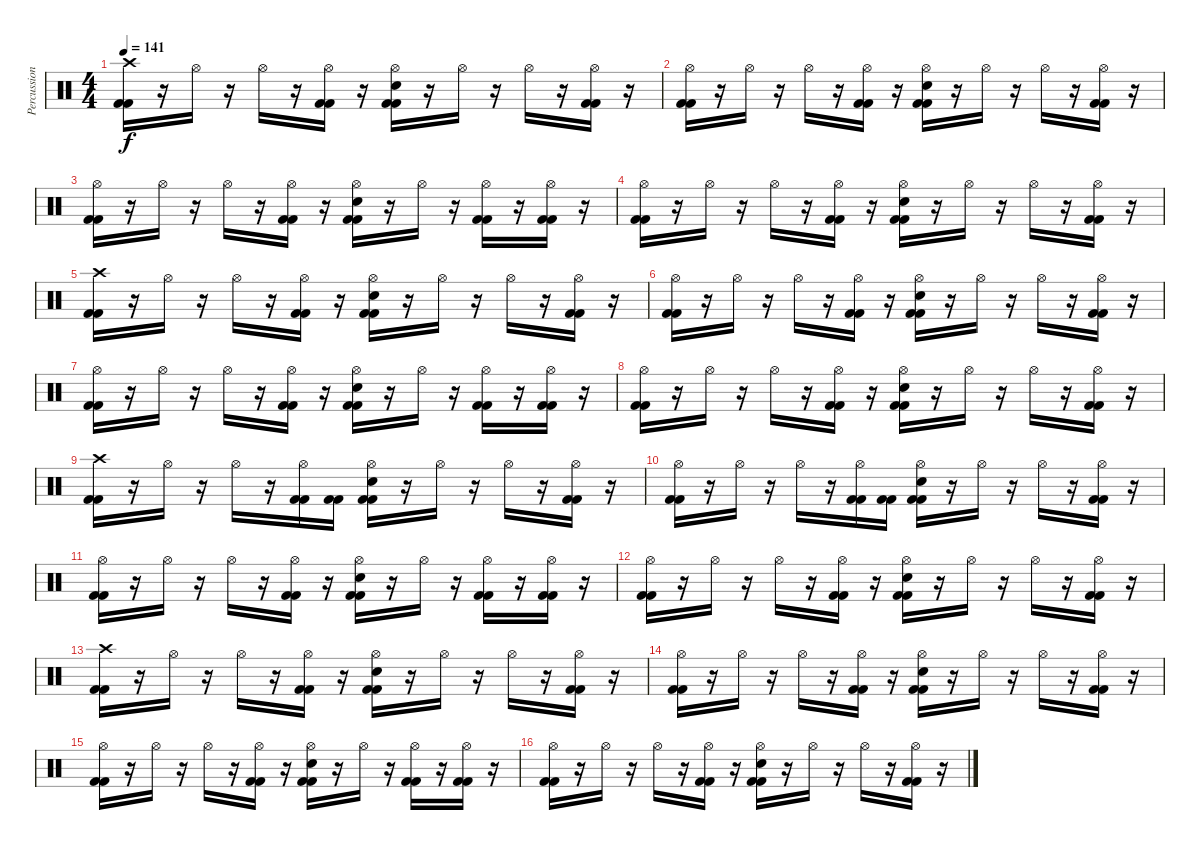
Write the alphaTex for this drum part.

\track ("Percussions" "Percussion") {instrument percussion}
\staff {score}
\articulation defaults
\ts (4 4)
\tempo 141
\clef neutral
\ks c
("Crash high (hit)" "Kick (hit) 2" "Kick (hit) 2").16{dy f} r.16 "Hi-Hat (open)".16 r.16 "Hi-Hat (open)".16 r.16 ("Hi-Hat (open)" "Kick (hit) 2" "Kick (hit) 2").16 r.16 ("Hi-Hat (open)" "Snare (hit) 2" "Kick (hit) 2" "Kick (hit) 2").16 r.16 "Hi-Hat (open)".16 r.16 "Hi-Hat (open)".16 r.16 ("Hi-Hat (open)" "Kick (hit) 2" "Kick (hit) 2").16 r.16 |
("Hi-Hat (open)" "Kick (hit) 2" "Kick (hit) 2").16 r.16 "Hi-Hat (open)".16 r.16 "Hi-Hat (open)".16 r.16 ("Hi-Hat (open)" "Kick (hit) 2" "Kick (hit) 2").16 r.16 ("Hi-Hat (open)" "Snare (hit) 2" "Kick (hit) 2" "Kick (hit) 2").16 r.16 "Hi-Hat (open)".16 r.16 "Hi-Hat (open)".16 r.16 ("Hi-Hat (open)" "Kick (hit) 2" "Kick (hit) 2").16 r.16 |
("Hi-Hat (open)" "Kick (hit) 2" "Kick (hit) 2").16 r.16 "Hi-Hat (open)".16 r.16 "Hi-Hat (open)".16 r.16 ("Hi-Hat (open)" "Kick (hit) 2" "Kick (hit) 2").16 r.16 ("Hi-Hat (open)" "Snare (hit) 2" "Kick (hit) 2" "Kick (hit) 2").16 r.16 "Hi-Hat (open)".16 r.16 ("Hi-Hat (open)" "Kick (hit) 2" "Kick (hit) 2").16 r.16 ("Hi-Hat (open)" "Kick (hit) 2" "Kick (hit) 2").16 r.16 |
("Hi-Hat (open)" "Kick (hit) 2" "Kick (hit) 2").16 r.16 "Hi-Hat (open)".16 r.16 "Hi-Hat (open)".16 r.16 ("Hi-Hat (open)" "Kick (hit) 2" "Kick (hit) 2").16 r.16 ("Hi-Hat (open)" "Snare (hit) 2" "Kick (hit) 2" "Kick (hit) 2").16 r.16 "Hi-Hat (open)".16 r.16 "Hi-Hat (open)".16 r.16 ("Hi-Hat (open)" "Kick (hit) 2" "Kick (hit) 2").16 r.16 |
("Crash high (hit)" "Kick (hit) 2" "Kick (hit) 2").16 r.16 "Hi-Hat (open)".16 r.16 "Hi-Hat (open)".16 r.16 ("Hi-Hat (open)" "Kick (hit) 2" "Kick (hit) 2").16 r.16 ("Hi-Hat (open)" "Snare (hit) 2" "Kick (hit) 2" "Kick (hit) 2").16 r.16 "Hi-Hat (open)".16 r.16 "Hi-Hat (open)".16 r.16 ("Hi-Hat (open)" "Kick (hit) 2" "Kick (hit) 2").16 r.16 |
("Hi-Hat (open)" "Kick (hit) 2" "Kick (hit) 2").16 r.16 "Hi-Hat (open)".16 r.16 "Hi-Hat (open)".16 r.16 ("Hi-Hat (open)" "Kick (hit) 2" "Kick (hit) 2").16 r.16 ("Hi-Hat (open)" "Snare (hit) 2" "Kick (hit) 2" "Kick (hit) 2").16 r.16 "Hi-Hat (open)".16 r.16 "Hi-Hat (open)".16 r.16 ("Hi-Hat (open)" "Kick (hit) 2" "Kick (hit) 2").16 r.16 |
("Hi-Hat (open)" "Kick (hit) 2" "Kick (hit) 2").16 r.16 "Hi-Hat (open)".16 r.16 "Hi-Hat (open)".16 r.16 ("Hi-Hat (open)" "Kick (hit) 2" "Kick (hit) 2").16 r.16 ("Hi-Hat (open)" "Snare (hit) 2" "Kick (hit) 2" "Kick (hit) 2").16 r.16 "Hi-Hat (open)".16 r.16 ("Hi-Hat (open)" "Kick (hit) 2" "Kick (hit) 2").16 r.16 ("Hi-Hat (open)" "Kick (hit) 2" "Kick (hit) 2").16 r.16 |
("Hi-Hat (open)" "Kick (hit) 2" "Kick (hit) 2").16 r.16 "Hi-Hat (open)".16 r.16 "Hi-Hat (open)".16 r.16 ("Hi-Hat (open)" "Kick (hit) 2" "Kick (hit) 2").16 r.16 ("Hi-Hat (open)" "Snare (hit) 2" "Kick (hit) 2" "Kick (hit) 2").16 r.16 "Hi-Hat (open)".16 r.16 "Hi-Hat (open)".16 r.16 ("Hi-Hat (open)" "Kick (hit) 2" "Kick (hit) 2").16 r.16 |
("Crash high (hit)" "Kick (hit) 2" "Kick (hit) 2").16 r.16 "Hi-Hat (open)".16 r.16 "Hi-Hat (open)".16 r.16 ("Hi-Hat (open)" "Kick (hit) 2" "Kick (hit) 2").16 ("Kick (hit) 2" "Kick (hit) 2").16 ("Hi-Hat (open)" "Snare (hit) 2" "Kick (hit) 2" "Kick (hit) 2").16 r.16 "Hi-Hat (open)".16 r.16 "Hi-Hat (open)".16 r.16 ("Hi-Hat (open)" "Kick (hit) 2" "Kick (hit) 2").16 r.16 |
("Hi-Hat (open)" "Kick (hit) 2" "Kick (hit) 2").16 r.16 "Hi-Hat (open)".16 r.16 "Hi-Hat (open)".16 r.16 ("Hi-Hat (open)" "Kick (hit) 2" "Kick (hit) 2").16 ("Kick (hit) 2" "Kick (hit) 2").16 ("Hi-Hat (open)" "Snare (hit) 2" "Kick (hit) 2" "Kick (hit) 2").16 r.16 "Hi-Hat (open)".16 r.16 "Hi-Hat (open)".16 r.16 ("Hi-Hat (open)" "Kick (hit) 2" "Kick (hit) 2").16 r.16 |
("Hi-Hat (open)" "Kick (hit) 2" "Kick (hit) 2").16 r.16 "Hi-Hat (open)".16 r.16 "Hi-Hat (open)".16 r.16 ("Hi-Hat (open)" "Kick (hit) 2" "Kick (hit) 2").16 r.16 ("Hi-Hat (open)" "Snare (hit) 2" "Kick (hit) 2" "Kick (hit) 2").16 r.16 "Hi-Hat (open)".16 r.16 ("Hi-Hat (open)" "Kick (hit) 2" "Kick (hit) 2").16 r.16 ("Hi-Hat (open)" "Kick (hit) 2" "Kick (hit) 2").16 r.16 |
("Hi-Hat (open)" "Kick (hit) 2" "Kick (hit) 2").16 r.16 "Hi-Hat (open)".16 r.16 "Hi-Hat (open)".16 r.16 ("Hi-Hat (open)" "Kick (hit) 2" "Kick (hit) 2").16 r.16 ("Hi-Hat (open)" "Snare (hit) 2" "Kick (hit) 2" "Kick (hit) 2").16 r.16 "Hi-Hat (open)".16 r.16 "Hi-Hat (open)".16 r.16 ("Hi-Hat (open)" "Kick (hit) 2" "Kick (hit) 2").16 r.16 |
("Crash high (hit)" "Kick (hit) 2" "Kick (hit) 2").16 r.16 "Hi-Hat (open)".16 r.16 "Hi-Hat (open)".16 r.16 ("Hi-Hat (open)" "Kick (hit) 2" "Kick (hit) 2").16 r.16 ("Hi-Hat (open)" "Snare (hit) 2" "Kick (hit) 2" "Kick (hit) 2").16 r.16 "Hi-Hat (open)".16 r.16 "Hi-Hat (open)".16 r.16 ("Hi-Hat (open)" "Kick (hit) 2" "Kick (hit) 2").16 r.16 |
("Hi-Hat (open)" "Kick (hit) 2" "Kick (hit) 2").16 r.16 "Hi-Hat (open)".16 r.16 "Hi-Hat (open)".16 r.16 ("Hi-Hat (open)" "Kick (hit) 2" "Kick (hit) 2").16 r.16 ("Hi-Hat (open)" "Snare (hit) 2" "Kick (hit) 2" "Kick (hit) 2").16 r.16 "Hi-Hat (open)".16 r.16 "Hi-Hat (open)".16 r.16 ("Hi-Hat (open)" "Kick (hit) 2" "Kick (hit) 2").16 r.16 |
("Hi-Hat (open)" "Kick (hit) 2" "Kick (hit) 2").16 r.16 "Hi-Hat (open)".16 r.16 "Hi-Hat (open)".16 r.16 ("Hi-Hat (open)" "Kick (hit) 2" "Kick (hit) 2").16 r.16 ("Hi-Hat (open)" "Snare (hit) 2" "Kick (hit) 2" "Kick (hit) 2").16 r.16 "Hi-Hat (open)".16 r.16 ("Hi-Hat (open)" "Kick (hit) 2" "Kick (hit) 2").16 r.16 ("Hi-Hat (open)" "Kick (hit) 2" "Kick (hit) 2").16 r.16 |
("Hi-Hat (open)" "Kick (hit) 2" "Kick (hit) 2").16 r.16 "Hi-Hat (open)".16 r.16 "Hi-Hat (open)".16 r.16 ("Hi-Hat (open)" "Kick (hit) 2" "Kick (hit) 2").16 r.16 ("Hi-Hat (open)" "Snare (hit) 2" "Kick (hit) 2" "Kick (hit) 2").16 r.16 "Hi-Hat (open)".16 r.16 "Hi-Hat (open)".16 r.16 ("Hi-Hat (open)" "Kick (hit) 2" "Kick (hit) 2").16 r.16
